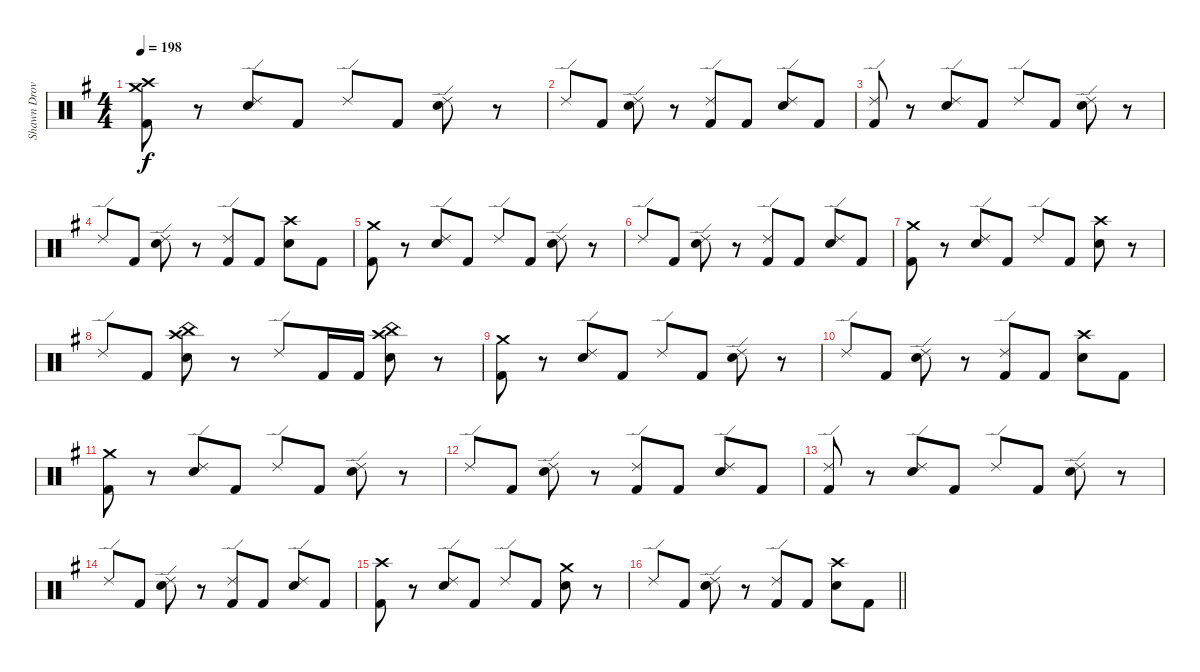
\track ("Shawn Drover" "Shawn Drov") {instrument percussion}
\staff {score}
\articulation defaults
\ts (4 4)
\tempo 198
\clef neutral
\ks g
("Crash medium (hit)" "Crash high (hit)" "Kick (hit) 2").8{dy f} r.8 ("Ride (edge) 2" "Snare (hit) 2").8 "Kick (hit) 2".8 "Ride (edge) 2".8 "Kick (hit) 2".8 ("Ride (edge) 2" "Snare (hit) 2").8 r.8 |
"Ride (edge) 2".8 "Kick (hit) 2".8 ("Ride (edge) 2" "Snare (hit) 2").8 r.8 ("Ride (edge) 2" "Kick (hit) 2").8 "Kick (hit) 2".8 ("Ride (edge) 2" "Snare (hit) 2").8 "Kick (hit) 2".8 |
("Ride (edge) 2" "Kick (hit) 2").8 r.8 ("Ride (edge) 2" "Snare (hit) 2").8 "Kick (hit) 2".8 "Ride (edge) 2".8 "Kick (hit) 2".8 ("Ride (edge) 2" "Snare (hit) 2").8 r.8 |
"Ride (edge) 2".8 "Kick (hit) 2".8 ("Ride (edge) 2" "Snare (hit) 2").8 r.8 ("Ride (edge) 2" "Kick (hit) 2").8 "Kick (hit) 2".8 ("Crash high (hit)" "Snare (hit) 2").8 "Kick (hit) 2".8 |
("Crash medium (hit)" "Kick (hit) 2").8 r.8 ("Ride (edge) 2" "Snare (hit) 2").8 "Kick (hit) 2".8 "Ride (edge) 2".8 "Kick (hit) 2".8 ("Ride (edge) 2" "Snare (hit) 2").8 r.8 |
"Ride (edge) 2".8 "Kick (hit) 2".8 ("Ride (edge) 2" "Snare (hit) 2").8 r.8 ("Ride (edge) 2" "Kick (hit) 2").8 "Kick (hit) 2".8 ("Ride (edge) 2" "Snare (hit) 2").8 "Kick (hit) 2".8 |
("Crash medium (hit)" "Kick (hit) 2").8 r.8 ("Ride (edge) 2" "Snare (hit) 2").8 "Kick (hit) 2".8 "Ride (edge) 2".8 "Kick (hit) 2".8 ("Crash high (hit)" "Snare (hit) 2").8 r.8 |
"Ride (edge) 2".8 "Kick (hit) 2".8 ("China (hit)" "Crash high (hit)" "Snare (hit) 2").8 r.8 "Ride (edge) 2".8 "Kick (hit) 2".16 "Kick (hit) 2".16 ("China (hit)" "Crash high (hit)" "Snare (hit) 2").8 r.8 |
("Crash medium (hit)" "Kick (hit) 2").8 r.8 ("Ride (edge) 2" "Snare (hit) 2").8 "Kick (hit) 2".8 "Ride (edge) 2".8 "Kick (hit) 2".8 ("Ride (edge) 2" "Snare (hit) 2").8 r.8 |
"Ride (edge) 2".8 "Kick (hit) 2".8 ("Ride (edge) 2" "Snare (hit) 2").8 r.8 ("Ride (edge) 2" "Kick (hit) 2").8 "Kick (hit) 2".8 ("Crash high (hit)" "Snare (hit) 2").8 "Kick (hit) 2".8 |
("Crash medium (hit)" "Kick (hit) 2").8 r.8 ("Ride (edge) 2" "Snare (hit) 2").8 "Kick (hit) 2".8 "Ride (edge) 2".8 "Kick (hit) 2".8 ("Ride (edge) 2" "Snare (hit) 2").8 r.8 |
"Ride (edge) 2".8 "Kick (hit) 2".8 ("Ride (edge) 2" "Snare (hit) 2").8 r.8 ("Ride (edge) 2" "Kick (hit) 2").8 "Kick (hit) 2".8 ("Ride (edge) 2" "Snare (hit) 2").8 "Kick (hit) 2".8 |
("Ride (edge) 2" "Kick (hit) 2").8 r.8 ("Ride (edge) 2" "Snare (hit) 2").8 "Kick (hit) 2".8 "Ride (edge) 2".8 "Kick (hit) 2".8 ("Ride (edge) 2" "Snare (hit) 2").8 r.8 |
"Ride (edge) 2".8 "Kick (hit) 2".8 ("Ride (edge) 2" "Snare (hit) 2").8 r.8 ("Ride (edge) 2" "Kick (hit) 2").8 "Kick (hit) 2".8 ("Ride (edge) 2" "Snare (hit) 2").8 "Kick (hit) 2".8 |
("Crash high (hit)" "Kick (hit) 2").8 r.8 ("Ride (edge) 2" "Snare (hit) 2").8 "Kick (hit) 2".8 "Ride (edge) 2".8 "Kick (hit) 2".8 ("Crash medium (hit)" "Snare (hit) 2").8 r.8 |
\barLineRight lightlight "Ride (edge) 2".8 "Kick (hit) 2".8
("Ride (edge) 2" "Snare (hit) 2").8 r.8 ("Ride (edge) 2" "Kick (hit) 2").8 "Kick (hit) 2".8 ("Crash high (hit)" "Snare (hit) 2").8 "Kick (hit) 2".8
